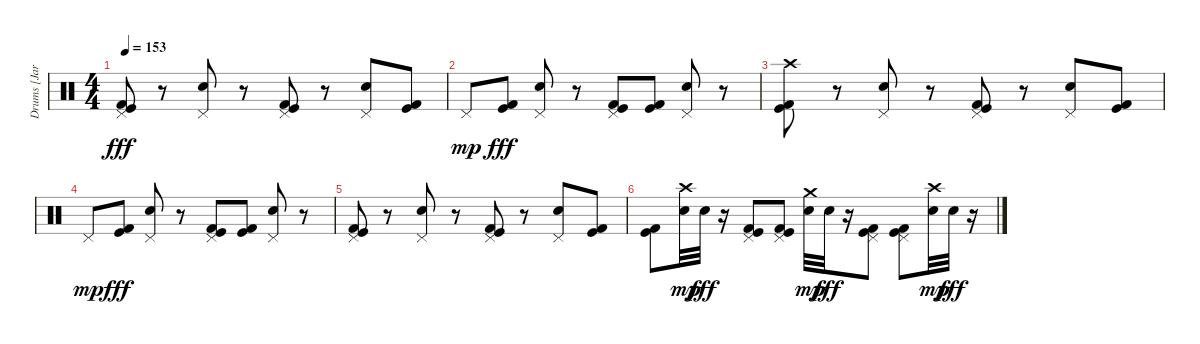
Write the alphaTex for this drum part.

\track ("Drums [Jari]" "Drums [Jar") {instrument percussion}
\staff {score}
\articulation defaults
\ts (4 4)
\tempo 153
\clef neutral
\ks c
("Kick (hit) 2" "Pedal Hi-Hat (hit)" "Kick (hit)").8{dy fff volume 3} r.8 ("Pedal Hi-Hat (hit)" "Electric Snare (hit)").8 r.8 ("Kick (hit) 2" "Pedal Hi-Hat (hit)" "Kick (hit)").8 r.8 ("Pedal Hi-Hat (hit)" "Electric Snare (hit)").8 ("Kick (hit) 2" "Kick (hit)").8 |
"Pedal Hi-Hat (hit)".8{dy mp} ("Kick (hit) 2" "Kick (hit)").8{dy fff} ("Pedal Hi-Hat (hit)" "Electric Snare (hit)").8 r.8 ("Kick (hit) 2" "Pedal Hi-Hat (hit)" "Kick (hit)").8 ("Kick (hit) 2" "Kick (hit)").8 ("Pedal Hi-Hat (hit)" "Electric Snare (hit)").8 r.8 |
("Kick (hit) 2" "Crash high (hit)" "Kick (hit)").8 r.8 ("Pedal Hi-Hat (hit)" "Electric Snare (hit)").8 r.8 ("Kick (hit) 2" "Pedal Hi-Hat (hit)" "Kick (hit)").8 r.8 ("Pedal Hi-Hat (hit)" "Electric Snare (hit)").8 ("Kick (hit) 2" "Kick (hit)").8 |
"Pedal Hi-Hat (hit)".8{dy mp} ("Kick (hit) 2" "Kick (hit)").8{dy fff} ("Pedal Hi-Hat (hit)" "Electric Snare (hit)").8 r.8 ("Kick (hit) 2" "Pedal Hi-Hat (hit)" "Kick (hit)").8 ("Kick (hit) 2" "Kick (hit)").8 ("Pedal Hi-Hat (hit)" "Electric Snare (hit)").8 r.8 |
("Kick (hit) 2" "Pedal Hi-Hat (hit)" "Kick (hit)").8{volume 0} r.8 ("Pedal Hi-Hat (hit)" "Electric Snare (hit)").8 r.8 ("Kick (hit) 2" "Pedal Hi-Hat (hit)" "Kick (hit)").8 r.8 ("Pedal Hi-Hat (hit)" "Electric Snare (hit)").8 ("Kick (hit) 2" "Kick (hit)").8 |
("Kick (hit) 2" "Kick (hit)").8 ("Crash high (hit)" "Electric Snare (hit)").32{dy mp} "Electric Snare (hit)".32{dy fff} r.16 ("Kick (hit) 2" "Pedal Hi-Hat (hit)" "Kick (hit)").8 ("Kick (hit) 2" "Pedal Hi-Hat (hit)" "Kick (hit)").8 ("Crash medium (hit)" "Electric Snare (hit)").32{dy mp} "Electric Snare (hit)".32{dy fff} r.16 ("Kick (hit) 2" "Pedal Hi-Hat (hit)" "Kick (hit)").8 ("Kick (hit) 2" "Pedal Hi-Hat (hit)" "Kick (hit)").8 ("Crash high (hit)" "Electric Snare (hit)").32{dy mp} "Electric Snare (hit)".32{dy fff} r.16
